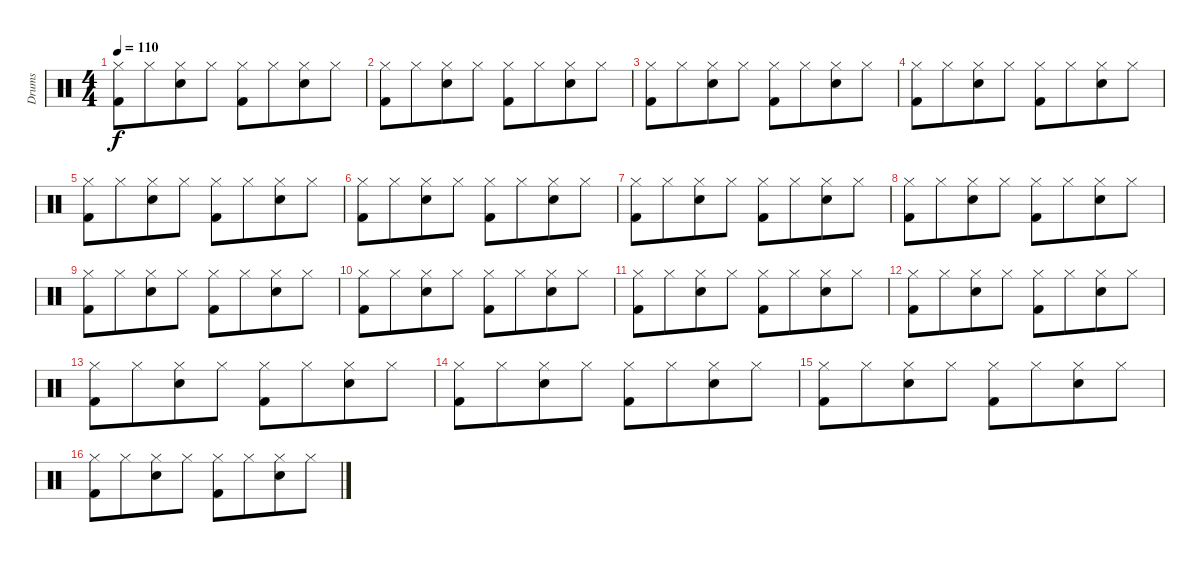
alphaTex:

\track ("Drums" "Drums") {instrument percussion}
\staff {score}
\articulation defaults
\ts (4 4)
\tempo 110
\clef neutral
\ks c
("Hi-Hat (closed)" "Kick (hit) 2").8{dy f} "Hi-Hat (closed)".8{beam merge} ("Hi-Hat (closed)" "Electric Snare (hit)").8 "Hi-Hat (closed)".8 ("Hi-Hat (closed)" "Kick (hit) 2").8 "Hi-Hat (closed)".8{beam merge} ("Hi-Hat (closed)" "Electric Snare (hit)").8 "Hi-Hat (closed)".8 |
("Hi-Hat (closed)" "Kick (hit) 2").8 "Hi-Hat (closed)".8{beam merge} ("Hi-Hat (closed)" "Electric Snare (hit)").8 "Hi-Hat (closed)".8 ("Hi-Hat (closed)" "Kick (hit) 2").8 "Hi-Hat (closed)".8{beam merge} ("Hi-Hat (closed)" "Electric Snare (hit)").8 "Hi-Hat (closed)".8 |
("Hi-Hat (closed)" "Kick (hit) 2").8 "Hi-Hat (closed)".8{beam merge} ("Hi-Hat (closed)" "Electric Snare (hit)").8 "Hi-Hat (closed)".8 ("Hi-Hat (closed)" "Kick (hit) 2").8 "Hi-Hat (closed)".8{beam merge} ("Hi-Hat (closed)" "Electric Snare (hit)").8 "Hi-Hat (closed)".8 |
("Hi-Hat (closed)" "Kick (hit) 2").8 "Hi-Hat (closed)".8{beam merge} ("Hi-Hat (closed)" "Electric Snare (hit)").8 "Hi-Hat (closed)".8 ("Hi-Hat (closed)" "Kick (hit) 2").8 "Hi-Hat (closed)".8{beam merge} ("Hi-Hat (closed)" "Electric Snare (hit)").8 "Hi-Hat (closed)".8 |
("Hi-Hat (closed)" "Kick (hit) 2").8 "Hi-Hat (closed)".8{beam merge} ("Hi-Hat (closed)" "Electric Snare (hit)").8 "Hi-Hat (closed)".8 ("Hi-Hat (closed)" "Kick (hit) 2").8 "Hi-Hat (closed)".8{beam merge} ("Hi-Hat (closed)" "Electric Snare (hit)").8 "Hi-Hat (closed)".8 |
("Hi-Hat (closed)" "Kick (hit) 2").8 "Hi-Hat (closed)".8{beam merge} ("Hi-Hat (closed)" "Electric Snare (hit)").8 "Hi-Hat (closed)".8 ("Hi-Hat (closed)" "Kick (hit) 2").8 "Hi-Hat (closed)".8{beam merge} ("Hi-Hat (closed)" "Electric Snare (hit)").8 "Hi-Hat (closed)".8 |
("Hi-Hat (closed)" "Kick (hit) 2").8 "Hi-Hat (closed)".8{beam merge} ("Hi-Hat (closed)" "Electric Snare (hit)").8 "Hi-Hat (closed)".8 ("Hi-Hat (closed)" "Kick (hit) 2").8 "Hi-Hat (closed)".8{beam merge} ("Hi-Hat (closed)" "Electric Snare (hit)").8 "Hi-Hat (closed)".8 |
("Hi-Hat (closed)" "Kick (hit) 2").8 "Hi-Hat (closed)".8{beam merge} ("Hi-Hat (closed)" "Electric Snare (hit)").8 "Hi-Hat (closed)".8 ("Hi-Hat (closed)" "Kick (hit) 2").8 "Hi-Hat (closed)".8{beam merge} ("Hi-Hat (closed)" "Electric Snare (hit)").8 "Hi-Hat (closed)".8 |
("Hi-Hat (closed)" "Kick (hit) 2").8 "Hi-Hat (closed)".8{beam merge} ("Hi-Hat (closed)" "Electric Snare (hit)").8 "Hi-Hat (closed)".8 ("Hi-Hat (closed)" "Kick (hit) 2").8 "Hi-Hat (closed)".8{beam merge} ("Hi-Hat (closed)" "Electric Snare (hit)").8 "Hi-Hat (closed)".8 |
("Hi-Hat (closed)" "Kick (hit) 2").8 "Hi-Hat (closed)".8{beam merge} ("Hi-Hat (closed)" "Electric Snare (hit)").8 "Hi-Hat (closed)".8 ("Hi-Hat (closed)" "Kick (hit) 2").8 "Hi-Hat (closed)".8{beam merge} ("Hi-Hat (closed)" "Electric Snare (hit)").8 "Hi-Hat (closed)".8 |
("Hi-Hat (closed)" "Kick (hit) 2").8 "Hi-Hat (closed)".8{beam merge} ("Hi-Hat (closed)" "Electric Snare (hit)").8 "Hi-Hat (closed)".8 ("Hi-Hat (closed)" "Kick (hit) 2").8 "Hi-Hat (closed)".8{beam merge} ("Hi-Hat (closed)" "Electric Snare (hit)").8 "Hi-Hat (closed)".8 |
("Hi-Hat (closed)" "Kick (hit) 2").8 "Hi-Hat (closed)".8{beam merge} ("Hi-Hat (closed)" "Electric Snare (hit)").8 "Hi-Hat (closed)".8 ("Hi-Hat (closed)" "Kick (hit) 2").8 "Hi-Hat (closed)".8{beam merge} ("Hi-Hat (closed)" "Electric Snare (hit)").8 "Hi-Hat (closed)".8 |
("Hi-Hat (closed)" "Kick (hit) 2").8 "Hi-Hat (closed)".8{beam merge} ("Hi-Hat (closed)" "Electric Snare (hit)").8 "Hi-Hat (closed)".8 ("Hi-Hat (closed)" "Kick (hit) 2").8 "Hi-Hat (closed)".8{beam merge} ("Hi-Hat (closed)" "Electric Snare (hit)").8 "Hi-Hat (closed)".8 |
("Hi-Hat (closed)" "Kick (hit) 2").8 "Hi-Hat (closed)".8{beam merge} ("Hi-Hat (closed)" "Electric Snare (hit)").8 "Hi-Hat (closed)".8 ("Hi-Hat (closed)" "Kick (hit) 2").8 "Hi-Hat (closed)".8{beam merge} ("Hi-Hat (closed)" "Electric Snare (hit)").8 "Hi-Hat (closed)".8 |
("Hi-Hat (closed)" "Kick (hit) 2").8 "Hi-Hat (closed)".8{beam merge} ("Hi-Hat (closed)" "Electric Snare (hit)").8 "Hi-Hat (closed)".8 ("Hi-Hat (closed)" "Kick (hit) 2").8 "Hi-Hat (closed)".8{beam merge} ("Hi-Hat (closed)" "Electric Snare (hit)").8 "Hi-Hat (closed)".8 |
("Hi-Hat (closed)" "Kick (hit) 2").8 "Hi-Hat (closed)".8{beam merge} ("Hi-Hat (closed)" "Electric Snare (hit)").8 "Hi-Hat (closed)".8 ("Hi-Hat (closed)" "Kick (hit) 2").8 "Hi-Hat (closed)".8{beam merge} ("Hi-Hat (closed)" "Electric Snare (hit)").8 "Hi-Hat (closed)".8
